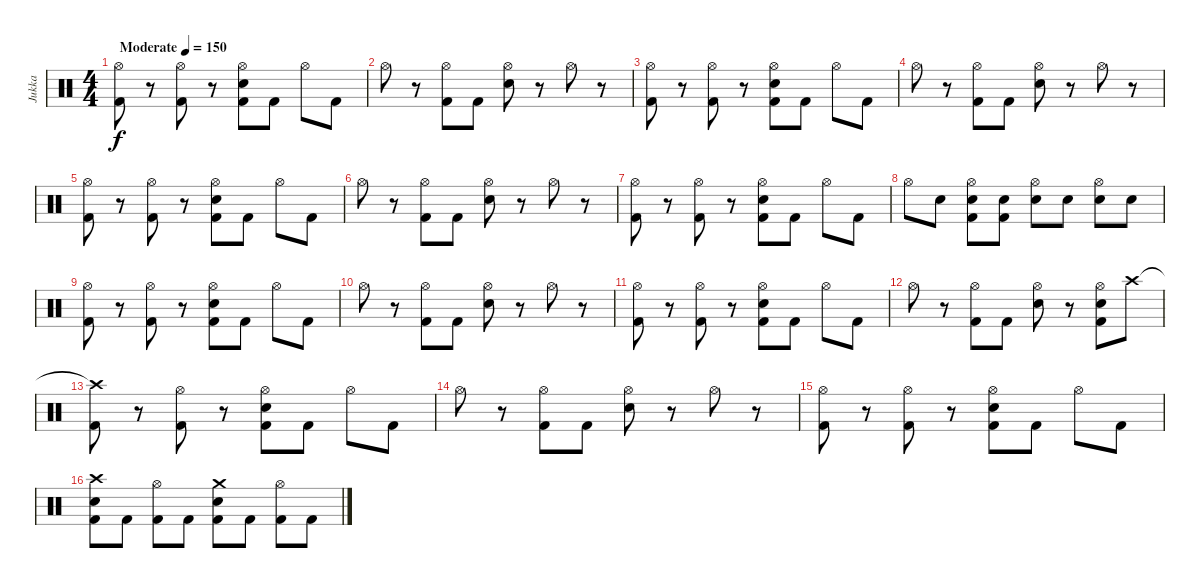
\track ("Jukka" "Jukka") {instrument percussion}
\staff {score}
\articulation defaults
\ts (4 4)
\tempo (150 "Moderate")
\clef neutral
\ks c
("Hi-Hat (open)" "Kick (hit) 2").8{dy f} r.8 ("Hi-Hat (open)" "Kick (hit) 2").8 r.8 ("Hi-Hat (open)" "Electric Snare (hit)" "Kick (hit) 2").8 "Kick (hit) 2".8 "Hi-Hat (open)".8 "Kick (hit) 2".8 |
"Hi-Hat (open)".8 r.8 ("Hi-Hat (open)" "Kick (hit) 2").8 "Kick (hit) 2".8 ("Hi-Hat (open)" "Electric Snare (hit)").8 r.8 "Hi-Hat (open)".8 r.8 |
("Hi-Hat (open)" "Kick (hit) 2").8 r.8 ("Hi-Hat (open)" "Kick (hit) 2").8 r.8 ("Hi-Hat (open)" "Electric Snare (hit)" "Kick (hit) 2").8 "Kick (hit) 2".8 "Hi-Hat (open)".8 "Kick (hit) 2".8 |
"Hi-Hat (open)".8 r.8 ("Hi-Hat (open)" "Kick (hit) 2").8 "Kick (hit) 2".8 ("Hi-Hat (open)" "Electric Snare (hit)").8 r.8 "Hi-Hat (open)".8 r.8 |
("Hi-Hat (open)" "Kick (hit) 2").8 r.8 ("Hi-Hat (open)" "Kick (hit) 2").8 r.8 ("Hi-Hat (open)" "Electric Snare (hit)" "Kick (hit) 2").8 "Kick (hit) 2".8 "Hi-Hat (open)".8 "Kick (hit) 2".8 |
"Hi-Hat (open)".8 r.8 ("Hi-Hat (open)" "Kick (hit) 2").8 "Kick (hit) 2".8 ("Hi-Hat (open)" "Electric Snare (hit)").8 r.8 "Hi-Hat (open)".8 r.8 |
("Hi-Hat (open)" "Kick (hit) 2").8 r.8 ("Hi-Hat (open)" "Kick (hit) 2").8 r.8 ("Hi-Hat (open)" "Electric Snare (hit)" "Kick (hit) 2").8 "Kick (hit) 2".8 "Hi-Hat (open)".8 "Kick (hit) 2".8 |
"Hi-Hat (open)".8 "Electric Snare (hit)".8 ("Hi-Hat (open)" "Electric Snare (hit)" "Kick (hit) 2").8 ("Electric Snare (hit)" "Kick (hit) 2").8 ("Hi-Hat (open)" "Electric Snare (hit)").8 "Electric Snare (hit)".8 ("Hi-Hat (open)" "Electric Snare (hit)").8 "Electric Snare (hit)".8 |
("Hi-Hat (open)" "Kick (hit) 2").8 r.8 ("Hi-Hat (open)" "Kick (hit) 2").8 r.8 ("Hi-Hat (open)" "Electric Snare (hit)" "Kick (hit) 2").8 "Kick (hit) 2".8 "Hi-Hat (open)".8 "Kick (hit) 2".8 |
"Hi-Hat (open)".8 r.8 ("Hi-Hat (open)" "Kick (hit) 2").8 "Kick (hit) 2".8 ("Hi-Hat (open)" "Electric Snare (hit)").8 r.8 "Hi-Hat (open)".8 r.8 |
("Hi-Hat (open)" "Kick (hit) 2").8 r.8 ("Hi-Hat (open)" "Kick (hit) 2").8 r.8 ("Hi-Hat (open)" "Electric Snare (hit)" "Kick (hit) 2").8 "Kick (hit) 2".8 "Hi-Hat (open)".8 "Kick (hit) 2".8 |
"Hi-Hat (open)".8 r.8 ("Hi-Hat (open)" "Kick (hit) 2").8 "Kick (hit) 2".8 ("Hi-Hat (open)" "Electric Snare (hit)").8 r.8 ("Hi-Hat (open)" "Electric Snare (hit)" "Kick (hit) 2").8 "Crash high (hit)".8 |
("Crash high (hit)"{t} "Kick (hit) 2").8 r.8 ("Hi-Hat (open)" "Kick (hit) 2").8 r.8 ("Hi-Hat (open)" "Electric Snare (hit)" "Kick (hit) 2").8 "Kick (hit) 2".8 "Hi-Hat (open)".8 "Kick (hit) 2".8 |
"Hi-Hat (open)".8 r.8 ("Hi-Hat (open)" "Kick (hit) 2").8 "Kick (hit) 2".8 ("Hi-Hat (open)" "Electric Snare (hit)").8 r.8 "Hi-Hat (open)".8 r.8 |
("Hi-Hat (open)" "Kick (hit) 2").8 r.8 ("Hi-Hat (open)" "Kick (hit) 2").8 r.8 ("Hi-Hat (open)" "Electric Snare (hit)" "Kick (hit) 2").8 "Kick (hit) 2".8 "Hi-Hat (open)".8 "Kick (hit) 2".8 |
("Crash high (hit)" "Electric Snare (hit)" "Kick (hit) 2").8 "Kick (hit) 2".8 ("Hi-Hat (open)" "Kick (hit) 2").8 "Kick (hit) 2".8 ("Crash medium (hit)" "Electric Snare (hit)" "Kick (hit) 2").8 "Kick (hit) 2".8 ("Hi-Hat (open)" "Kick (hit) 2").8 "Kick (hit) 2".8
